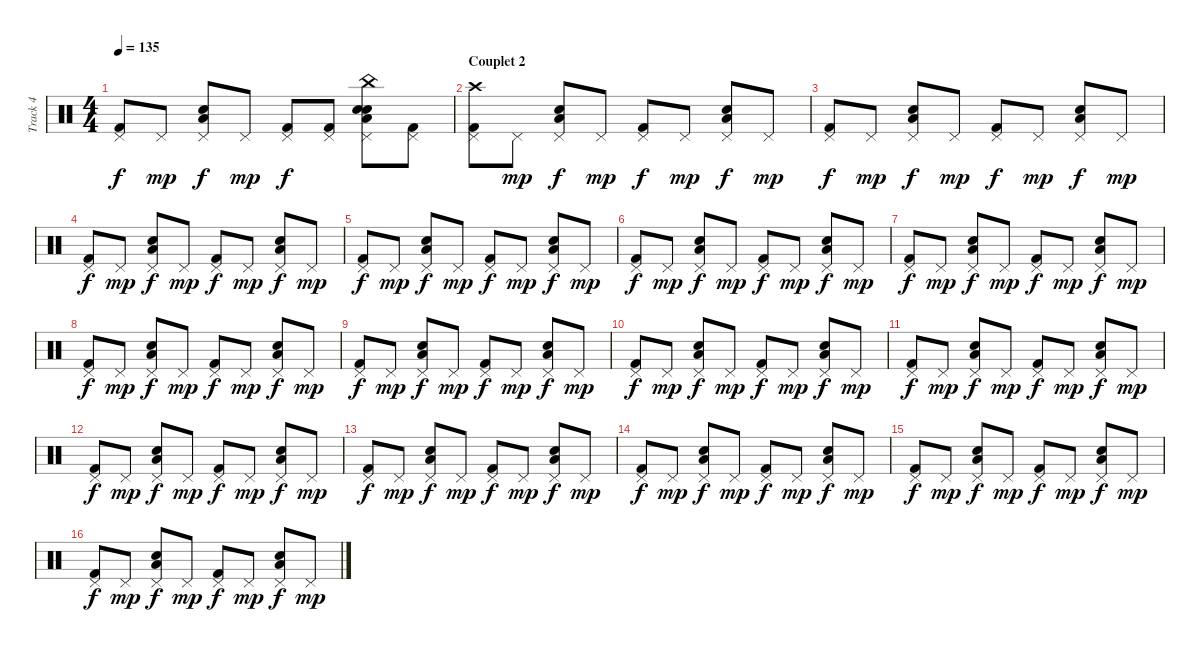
\track ("Track 4" "Track 4") {instrument percussion}
\staff {score}
\articulation defaults
\ts (4 4)
\tempo 135
\clef neutral
\ks c
("Pedal Hi-Hat (hit)" "Kick (hit) 2").8{dy f} "Pedal Hi-Hat (hit)".8{dy mp} ("Pedal Hi-Hat (hit)" "Low Tom (hit)" "Electric Snare (hit)").8{dy f} "Pedal Hi-Hat (hit)".8{dy mp} ("Pedal Hi-Hat (hit)" "Kick (hit) 2").8{dy f} ("Pedal Hi-Hat (hit)" "Kick (hit) 2").8 ("Pedal Hi-Hat (hit)" "Low Tom (hit)" "Electric Snare (hit)" "Snare (hit) 2" "China (hit)").8 ("Pedal Hi-Hat (hit)" "Kick (hit) 2").8 |
\section ("" "Couplet 2")
("Pedal Hi-Hat (hit)" "Kick (hit) 2" "Crash high (hit)").8 "Pedal Hi-Hat (hit)".8{dy mp} ("Pedal Hi-Hat (hit)" "Low Tom (hit)" "Electric Snare (hit)").8{dy f} "Pedal Hi-Hat (hit)".8{dy mp} ("Pedal Hi-Hat (hit)" "Kick (hit) 2").8{dy f} "Pedal Hi-Hat (hit)".8{dy mp} ("Pedal Hi-Hat (hit)" "Low Tom (hit)" "Electric Snare (hit)").8{dy f} "Pedal Hi-Hat (hit)".8{dy mp} |
("Pedal Hi-Hat (hit)" "Kick (hit) 2").8{dy f} "Pedal Hi-Hat (hit)".8{dy mp} ("Pedal Hi-Hat (hit)" "Low Tom (hit)" "Electric Snare (hit)").8{dy f} "Pedal Hi-Hat (hit)".8{dy mp} ("Pedal Hi-Hat (hit)" "Kick (hit) 2").8{dy f} "Pedal Hi-Hat (hit)".8{dy mp} ("Pedal Hi-Hat (hit)" "Low Tom (hit)" "Electric Snare (hit)").8{dy f} "Pedal Hi-Hat (hit)".8{dy mp} |
("Pedal Hi-Hat (hit)" "Kick (hit) 2").8{dy f} "Pedal Hi-Hat (hit)".8{dy mp} ("Pedal Hi-Hat (hit)" "Low Tom (hit)" "Electric Snare (hit)").8{dy f} "Pedal Hi-Hat (hit)".8{dy mp} ("Pedal Hi-Hat (hit)" "Kick (hit) 2").8{dy f} "Pedal Hi-Hat (hit)".8{dy mp} ("Pedal Hi-Hat (hit)" "Low Tom (hit)" "Electric Snare (hit)").8{dy f} "Pedal Hi-Hat (hit)".8{dy mp} |
("Pedal Hi-Hat (hit)" "Kick (hit) 2").8{dy f} "Pedal Hi-Hat (hit)".8{dy mp} ("Pedal Hi-Hat (hit)" "Low Tom (hit)" "Electric Snare (hit)").8{dy f} "Pedal Hi-Hat (hit)".8{dy mp} ("Pedal Hi-Hat (hit)" "Kick (hit) 2").8{dy f} "Pedal Hi-Hat (hit)".8{dy mp} ("Pedal Hi-Hat (hit)" "Low Tom (hit)" "Electric Snare (hit)").8{dy f} "Pedal Hi-Hat (hit)".8{dy mp} |
("Pedal Hi-Hat (hit)" "Kick (hit) 2").8{dy f} "Pedal Hi-Hat (hit)".8{dy mp} ("Pedal Hi-Hat (hit)" "Low Tom (hit)" "Electric Snare (hit)").8{dy f} "Pedal Hi-Hat (hit)".8{dy mp} ("Pedal Hi-Hat (hit)" "Kick (hit) 2").8{dy f} "Pedal Hi-Hat (hit)".8{dy mp} ("Pedal Hi-Hat (hit)" "Low Tom (hit)" "Electric Snare (hit)").8{dy f} "Pedal Hi-Hat (hit)".8{dy mp} |
("Pedal Hi-Hat (hit)" "Kick (hit) 2").8{dy f} "Pedal Hi-Hat (hit)".8{dy mp} ("Pedal Hi-Hat (hit)" "Low Tom (hit)" "Electric Snare (hit)").8{dy f} "Pedal Hi-Hat (hit)".8{dy mp} ("Pedal Hi-Hat (hit)" "Kick (hit) 2").8{dy f} "Pedal Hi-Hat (hit)".8{dy mp} ("Pedal Hi-Hat (hit)" "Low Tom (hit)" "Electric Snare (hit)").8{dy f} "Pedal Hi-Hat (hit)".8{dy mp} |
("Pedal Hi-Hat (hit)" "Kick (hit) 2").8{dy f} "Pedal Hi-Hat (hit)".8{dy mp} ("Pedal Hi-Hat (hit)" "Low Tom (hit)" "Electric Snare (hit)").8{dy f} "Pedal Hi-Hat (hit)".8{dy mp} ("Pedal Hi-Hat (hit)" "Kick (hit) 2").8{dy f} "Pedal Hi-Hat (hit)".8{dy mp} ("Pedal Hi-Hat (hit)" "Low Tom (hit)" "Electric Snare (hit)").8{dy f} "Pedal Hi-Hat (hit)".8{dy mp} |
("Pedal Hi-Hat (hit)" "Kick (hit) 2").8{dy f} "Pedal Hi-Hat (hit)".8{dy mp} ("Pedal Hi-Hat (hit)" "Low Tom (hit)" "Electric Snare (hit)").8{dy f} "Pedal Hi-Hat (hit)".8{dy mp} ("Pedal Hi-Hat (hit)" "Kick (hit) 2").8{dy f} "Pedal Hi-Hat (hit)".8{dy mp} ("Pedal Hi-Hat (hit)" "Low Tom (hit)" "Electric Snare (hit)").8{dy f} "Pedal Hi-Hat (hit)".8{dy mp} |
("Pedal Hi-Hat (hit)" "Kick (hit) 2").8{dy f} "Pedal Hi-Hat (hit)".8{dy mp} ("Pedal Hi-Hat (hit)" "Low Tom (hit)" "Electric Snare (hit)").8{dy f} "Pedal Hi-Hat (hit)".8{dy mp} ("Pedal Hi-Hat (hit)" "Kick (hit) 2").8{dy f} "Pedal Hi-Hat (hit)".8{dy mp} ("Pedal Hi-Hat (hit)" "Low Tom (hit)" "Electric Snare (hit)").8{dy f} "Pedal Hi-Hat (hit)".8{dy mp} |
("Pedal Hi-Hat (hit)" "Kick (hit) 2").8{dy f} "Pedal Hi-Hat (hit)".8{dy mp} ("Pedal Hi-Hat (hit)" "Low Tom (hit)" "Electric Snare (hit)").8{dy f} "Pedal Hi-Hat (hit)".8{dy mp} ("Pedal Hi-Hat (hit)" "Kick (hit) 2").8{dy f} "Pedal Hi-Hat (hit)".8{dy mp} ("Pedal Hi-Hat (hit)" "Low Tom (hit)" "Electric Snare (hit)").8{dy f} "Pedal Hi-Hat (hit)".8{dy mp} |
("Pedal Hi-Hat (hit)" "Kick (hit) 2").8{dy f} "Pedal Hi-Hat (hit)".8{dy mp} ("Pedal Hi-Hat (hit)" "Low Tom (hit)" "Electric Snare (hit)").8{dy f} "Pedal Hi-Hat (hit)".8{dy mp} ("Pedal Hi-Hat (hit)" "Kick (hit) 2").8{dy f} "Pedal Hi-Hat (hit)".8{dy mp} ("Pedal Hi-Hat (hit)" "Low Tom (hit)" "Electric Snare (hit)").8{dy f} "Pedal Hi-Hat (hit)".8{dy mp} |
("Pedal Hi-Hat (hit)" "Kick (hit) 2").8{dy f} "Pedal Hi-Hat (hit)".8{dy mp} ("Pedal Hi-Hat (hit)" "Low Tom (hit)" "Electric Snare (hit)").8{dy f} "Pedal Hi-Hat (hit)".8{dy mp} ("Pedal Hi-Hat (hit)" "Kick (hit) 2").8{dy f} "Pedal Hi-Hat (hit)".8{dy mp} ("Pedal Hi-Hat (hit)" "Low Tom (hit)" "Electric Snare (hit)").8{dy f} "Pedal Hi-Hat (hit)".8{dy mp} |
("Pedal Hi-Hat (hit)" "Kick (hit) 2").8{dy f} "Pedal Hi-Hat (hit)".8{dy mp} ("Pedal Hi-Hat (hit)" "Low Tom (hit)" "Electric Snare (hit)").8{dy f} "Pedal Hi-Hat (hit)".8{dy mp} ("Pedal Hi-Hat (hit)" "Kick (hit) 2").8{dy f} "Pedal Hi-Hat (hit)".8{dy mp} ("Pedal Hi-Hat (hit)" "Low Tom (hit)" "Electric Snare (hit)").8{dy f} "Pedal Hi-Hat (hit)".8{dy mp} |
("Pedal Hi-Hat (hit)" "Kick (hit) 2").8{dy f} "Pedal Hi-Hat (hit)".8{dy mp} ("Pedal Hi-Hat (hit)" "Low Tom (hit)" "Electric Snare (hit)").8{dy f} "Pedal Hi-Hat (hit)".8{dy mp} ("Pedal Hi-Hat (hit)" "Kick (hit) 2").8{dy f} "Pedal Hi-Hat (hit)".8{dy mp} ("Pedal Hi-Hat (hit)" "Low Tom (hit)" "Electric Snare (hit)").8{dy f} "Pedal Hi-Hat (hit)".8{dy mp} |
("Pedal Hi-Hat (hit)" "Kick (hit) 2").8{dy f} "Pedal Hi-Hat (hit)".8{dy mp} ("Pedal Hi-Hat (hit)" "Low Tom (hit)" "Electric Snare (hit)").8{dy f} "Pedal Hi-Hat (hit)".8{dy mp} ("Pedal Hi-Hat (hit)" "Kick (hit) 2").8{dy f} "Pedal Hi-Hat (hit)".8{dy mp} ("Pedal Hi-Hat (hit)" "Low Tom (hit)" "Electric Snare (hit)").8{dy f} "Pedal Hi-Hat (hit)".8{dy mp}
